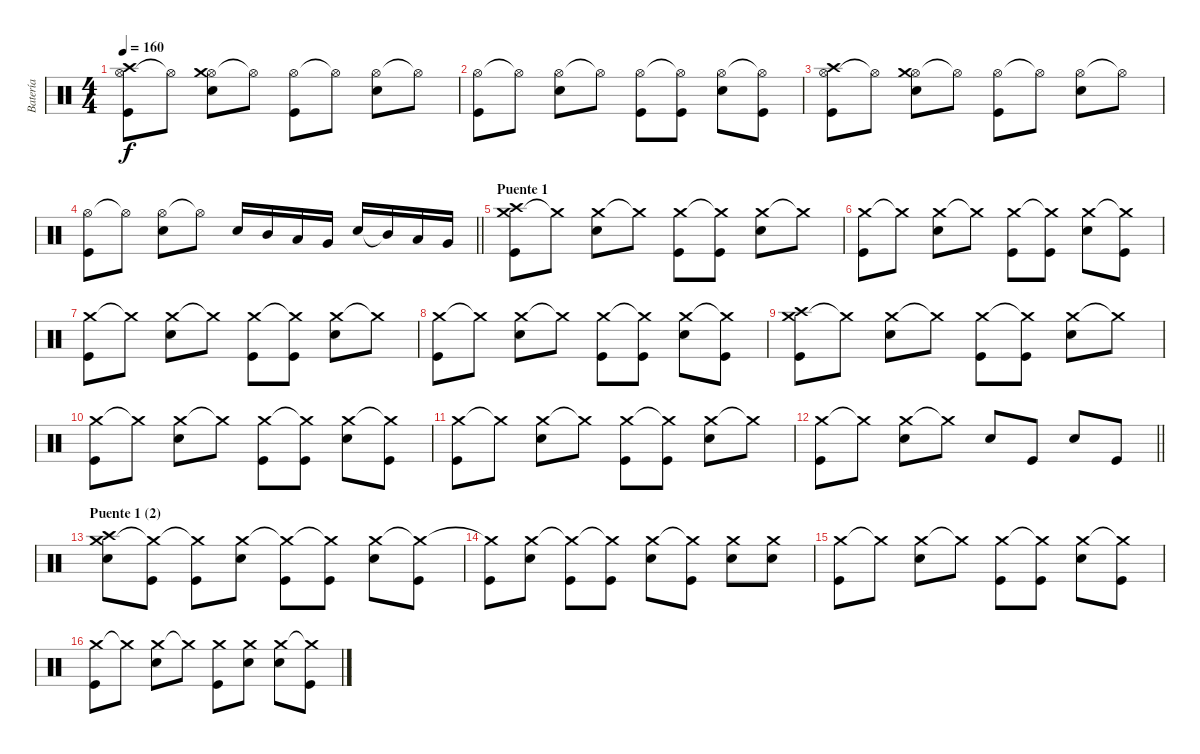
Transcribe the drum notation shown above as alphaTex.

\track ("Batería" "Batería") {instrument percussion}
\staff {score}
\articulation defaults
\ts (4 4)
\tempo 160
\clef neutral
\ks c
("Hi-Hat (open)" "Kick (hit)" "Crash high (hit)").8{dy f} "Hi-Hat (open)"{t}.8 ("Hi-Hat (open)" "Electric Snare (hit)" "Crash medium (hit)").8 "Hi-Hat (open)"{t}.8 ("Hi-Hat (open)" "Kick (hit)").8 "Hi-Hat (open)"{t}.8 ("Hi-Hat (open)" "Electric Snare (hit)").8 "Hi-Hat (open)"{t}.8 |
("Hi-Hat (open)" "Kick (hit)").8 "Hi-Hat (open)"{t}.8 ("Hi-Hat (open)" "Electric Snare (hit)").8 "Hi-Hat (open)"{t}.8 ("Hi-Hat (open)" "Kick (hit)").8 ("Hi-Hat (open)"{t} "Kick (hit)").8 ("Hi-Hat (open)" "Electric Snare (hit)").8 ("Hi-Hat (open)"{t} "Kick (hit)").8 |
("Hi-Hat (open)" "Kick (hit)" "Crash high (hit)").8 "Hi-Hat (open)"{t}.8 ("Hi-Hat (open)" "Electric Snare (hit)" "Crash medium (hit)").8 "Hi-Hat (open)"{t}.8 ("Hi-Hat (open)" "Kick (hit)").8 "Hi-Hat (open)"{t}.8 ("Hi-Hat (open)" "Electric Snare (hit)").8 "Hi-Hat (open)"{t}.8 |
\barLineRight lightlight
("Hi-Hat (open)" "Kick (hit)").8 "Hi-Hat (open)"{t}.8 ("Hi-Hat (open)" "Electric Snare (hit)").8 "Hi-Hat (open)"{t}.8 "Electric Snare (hit)".16 "Mid Tom (hit)".16 "Low Tom (hit)".16 "Very Low Tom (hit)".16 "Electric Snare (hit)".16 "Mid Tom (hit)"{t}.16 "Low Tom (hit)".16 "Very Low Tom (hit)".16 |
\section ("" "Puente 1")
("Crash medium (hit)" "Kick (hit)" "Crash high (hit)").8 "Crash medium (hit)"{t}.8 ("Crash medium (hit)" "Electric Snare (hit)").8 "Crash medium (hit)"{t}.8 ("Crash medium (hit)" "Kick (hit)").8 ("Crash medium (hit)"{t} "Kick (hit)").8 ("Crash medium (hit)" "Electric Snare (hit)").8 "Crash medium (hit)"{t}.8 |
("Crash medium (hit)" "Kick (hit)").8 "Crash medium (hit)"{t}.8 ("Crash medium (hit)" "Electric Snare (hit)").8 "Crash medium (hit)"{t}.8 ("Crash medium (hit)" "Kick (hit)").8 ("Crash medium (hit)"{t} "Kick (hit)").8 ("Crash medium (hit)" "Electric Snare (hit)").8 ("Crash medium (hit)"{t} "Kick (hit)").8 |
("Crash medium (hit)" "Kick (hit)").8 "Crash medium (hit)"{t}.8 ("Crash medium (hit)" "Electric Snare (hit)").8 "Crash medium (hit)"{t}.8 ("Crash medium (hit)" "Kick (hit)").8 ("Crash medium (hit)"{t} "Kick (hit)").8 ("Crash medium (hit)" "Electric Snare (hit)").8 "Crash medium (hit)"{t}.8 |
("Crash medium (hit)" "Kick (hit)").8 "Crash medium (hit)"{t}.8 ("Crash medium (hit)" "Electric Snare (hit)").8 "Crash medium (hit)"{t}.8 ("Crash medium (hit)" "Kick (hit)").8 ("Crash medium (hit)"{t} "Kick (hit)").8 ("Crash medium (hit)" "Electric Snare (hit)").8 ("Crash medium (hit)"{t} "Kick (hit)").8 |
("Crash medium (hit)" "Kick (hit)" "Crash high (hit)").8 "Crash medium (hit)"{t}.8 ("Crash medium (hit)" "Electric Snare (hit)").8 "Crash medium (hit)"{t}.8 ("Crash medium (hit)" "Kick (hit)").8 ("Crash medium (hit)"{t} "Kick (hit)").8 ("Crash medium (hit)" "Electric Snare (hit)").8 "Crash medium (hit)"{t}.8 |
("Crash medium (hit)" "Kick (hit)").8 "Crash medium (hit)"{t}.8 ("Crash medium (hit)" "Electric Snare (hit)").8 "Crash medium (hit)"{t}.8 ("Crash medium (hit)" "Kick (hit)").8 ("Crash medium (hit)"{t} "Kick (hit)").8 ("Crash medium (hit)" "Electric Snare (hit)").8 ("Crash medium (hit)"{t} "Kick (hit)").8 |
("Crash medium (hit)" "Kick (hit)").8 "Crash medium (hit)"{t}.8 ("Crash medium (hit)" "Electric Snare (hit)").8 "Crash medium (hit)"{t}.8 ("Crash medium (hit)" "Kick (hit)").8 ("Crash medium (hit)"{t} "Kick (hit)").8 ("Crash medium (hit)" "Electric Snare (hit)").8 "Crash medium (hit)"{t}.8 |
\barLineRight lightlight
("Crash medium (hit)" "Kick (hit)").8 "Crash medium (hit)"{t}.8 ("Crash medium (hit)" "Electric Snare (hit)").8 "Crash medium (hit)"{t}.8 "Electric Snare (hit)".8 "Kick (hit)".8 "Electric Snare (hit)".8 "Kick (hit)".8 |
\section ("" "Puente 1 (2)")
("Crash medium (hit)" "Electric Snare (hit)" "Crash high (hit)").8 ("Crash medium (hit)"{t} "Kick (hit)").8 ("Crash medium (hit)"{t} "Kick (hit)").8 ("Crash medium (hit)" "Electric Snare (hit)").8 ("Crash medium (hit)"{t} "Kick (hit)").8 ("Crash medium (hit)"{t} "Kick (hit)").8 ("Crash medium (hit)" "Electric Snare (hit)").8 ("Crash medium (hit)"{t} "Kick (hit)").8 |
("Crash medium (hit)"{t} "Kick (hit)").8 ("Crash medium (hit)" "Electric Snare (hit)").8 ("Crash medium (hit)"{t} "Kick (hit)").8 ("Crash medium (hit)"{t} "Kick (hit)").8 ("Crash medium (hit)" "Electric Snare (hit)").8 ("Crash medium (hit)"{t} "Kick (hit)").8 ("Crash medium (hit)" "Electric Snare (hit)").8 ("Crash medium (hit)" "Electric Snare (hit)").8 |
("Crash medium (hit)" "Kick (hit)").8 "Crash medium (hit)"{t}.8 ("Crash medium (hit)" "Electric Snare (hit)").8 "Crash medium (hit)"{t}.8 ("Crash medium (hit)" "Kick (hit)").8 ("Crash medium (hit)"{t} "Kick (hit)").8 ("Crash medium (hit)" "Electric Snare (hit)").8 ("Crash medium (hit)"{t} "Kick (hit)").8 |
("Crash medium (hit)" "Kick (hit)").8 "Crash medium (hit)"{t}.8 ("Crash medium (hit)" "Electric Snare (hit)").8 "Crash medium (hit)"{t}.8 ("Crash medium (hit)" "Kick (hit)").8 ("Crash medium (hit)" "Electric Snare (hit)").8 ("Crash medium (hit)" "Electric Snare (hit)").8 ("Crash medium (hit)"{t} "Kick (hit)").8
